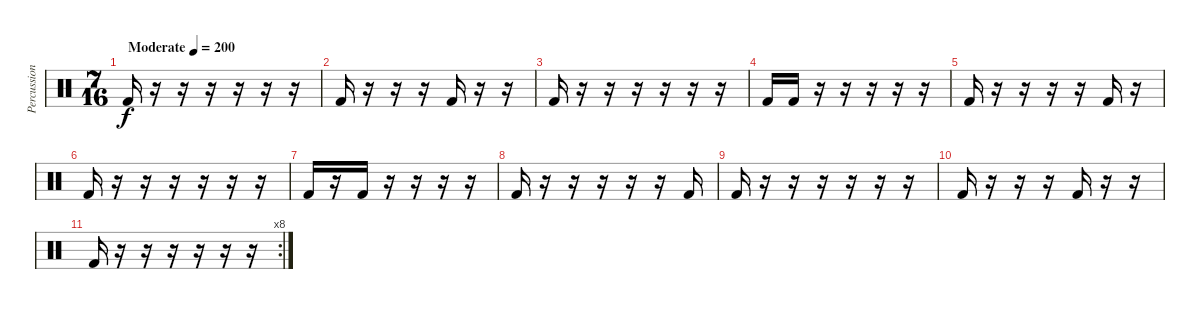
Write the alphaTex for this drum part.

\track ("Percussion" "Percussion") {instrument percussion}
\staff {score}
\articulation defaults
\ts (7 16)
\tempo (200 "Moderate")
\clef neutral
\ks c "Kick (hit) 2".16{dy f}
r.16 r.16 r.16 r.16 r.16 r.16 |
"Kick (hit) 2".16 r.16 r.16 r.16 "Kick (hit) 2".16 r.16 r.16 |
"Kick (hit) 2".16 r.16 r.16 r.16 r.16 r.16 r.16 |
"Kick (hit) 2".16 "Kick (hit) 2".16 r.16 r.16 r.16 r.16 r.16 |
"Kick (hit) 2".16 r.16 r.16 r.16 r.16 "Kick (hit) 2".16 r.16 |
"Kick (hit) 2".16 r.16 r.16 r.16 r.16 r.16 r.16 |
"Kick (hit) 2".16 r.16 "Kick (hit) 2".16 r.16 r.16 r.16 r.16 |
"Kick (hit) 2".16 r.16 r.16 r.16 r.16 r.16 "Kick (hit) 2".16 |
"Kick (hit) 2".16 r.16 r.16 r.16 r.16 r.16 r.16 |
"Kick (hit) 2".16 r.16 r.16 r.16 "Kick (hit) 2".16 r.16 r.16 |
\rc 8 "Kick (hit) 2".16
r.16 r.16 r.16 r.16 r.16 r.16
